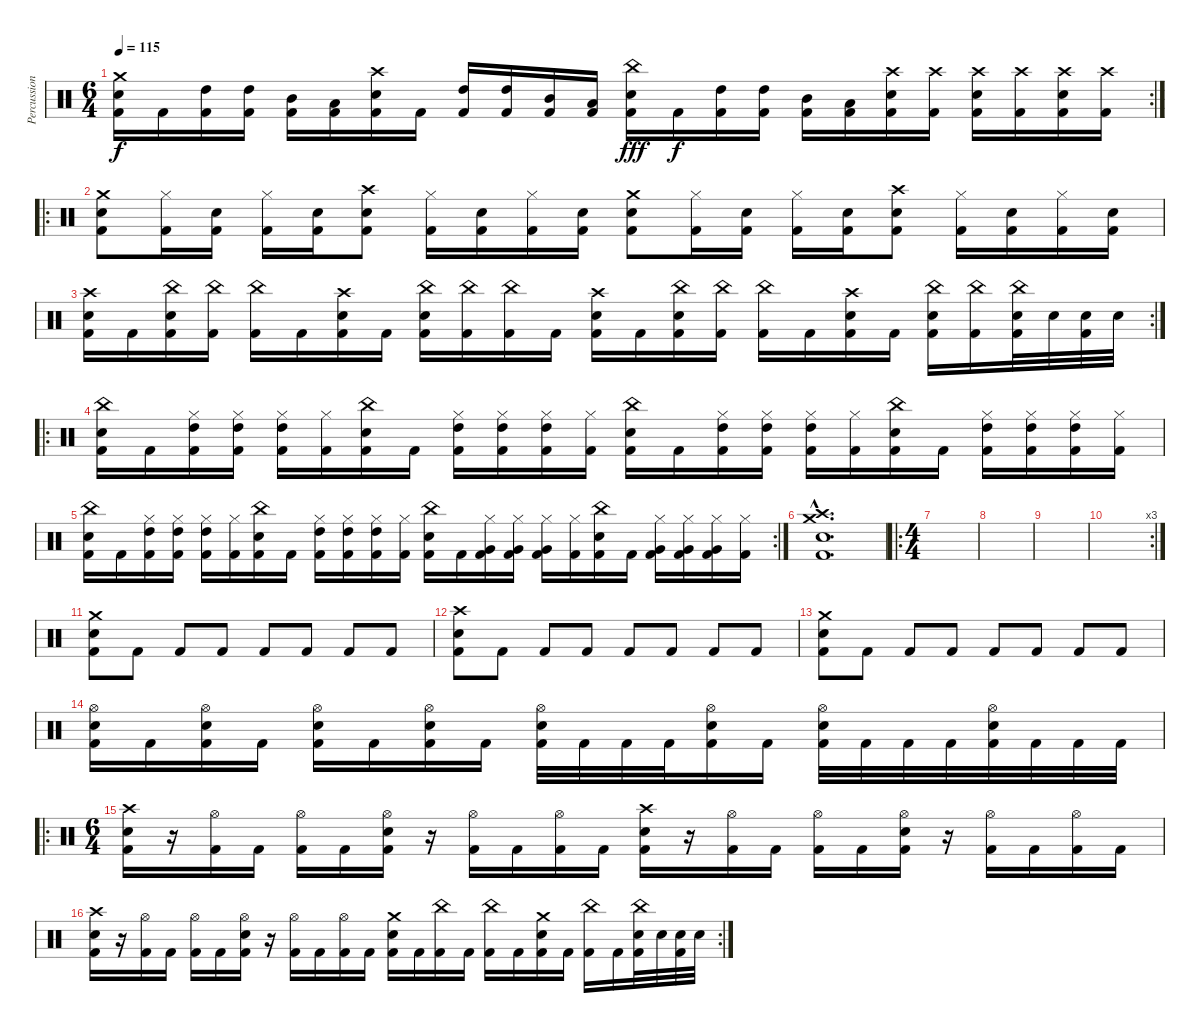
\track ("Percussion" "Percussion") {instrument percussion}
\staff {score}
\articulation defaults
\rc 2
\ts (6 4)
\tempo 115
\clef neutral
\ks c
("Crash medium (hit)" "Electric Snare (hit)" "Kick (hit) 2").16{dy f} "Kick (hit) 2".16 ("High Tom (hit)" "Kick (hit) 2").16 ("High Tom (hit)" "Kick (hit) 2").16 ("Mid Tom (hit)" "Kick (hit) 2").16 ("Low Tom (hit)" "Kick (hit) 2").16 ("Crash high (hit)" "Electric Snare (hit)" "Kick (hit) 2").16 "Kick (hit) 2".16 ("High Tom (hit)" "Kick (hit) 2").16 ("High Tom (hit)" "Kick (hit) 2").16 ("Mid Tom (hit)" "Kick (hit) 2").16 ("Low Tom (hit)" "Kick (hit) 2").16 ("China (hit)" "Electric Snare (hit)" "Kick (hit) 2").16{dy fff} "Kick (hit) 2".16{dy f} ("High Tom (hit)" "Kick (hit) 2").16 ("High Tom (hit)" "Kick (hit) 2").16 ("Mid Tom (hit)" "Kick (hit) 2").16 ("Low Tom (hit)" "Kick (hit) 2").16 ("Crash high (hit)" "Electric Snare (hit)" "Kick (hit) 2").16 ("Crash high (hit)" "Kick (hit) 2").16 ("Crash high (hit)" "Electric Snare (hit)" "Kick (hit) 2").16 ("Crash high (hit)" "Kick (hit) 2").16 ("Crash high (hit)" "Electric Snare (hit)" "Kick (hit) 2").16 ("Crash high (hit)" "Kick (hit) 2").16 |
\ro
("Crash medium (hit)" "Electric Snare (hit)" "Kick (hit) 2").8 ("Hi-Hat (closed)" "Kick (hit) 2").16 ("Electric Snare (hit)" "Kick (hit) 2").16 ("Hi-Hat (closed)" "Kick (hit) 2").16 ("Electric Snare (hit)" "Kick (hit) 2").16 ("Crash high (hit)" "Electric Snare (hit)" "Kick (hit) 2").8 ("Hi-Hat (closed)" "Kick (hit) 2").16 ("Electric Snare (hit)" "Kick (hit) 2").16 ("Hi-Hat (closed)" "Kick (hit) 2").16 ("Electric Snare (hit)" "Kick (hit) 2").16 ("Crash medium (hit)" "Electric Snare (hit)" "Kick (hit) 2").8 ("Hi-Hat (closed)" "Kick (hit) 2").16 ("Electric Snare (hit)" "Kick (hit) 2").16 ("Hi-Hat (closed)" "Kick (hit) 2").16 ("Electric Snare (hit)" "Kick (hit) 2").16 ("Crash high (hit)" "Electric Snare (hit)" "Kick (hit) 2").8 ("Hi-Hat (closed)" "Kick (hit) 2").16 ("Electric Snare (hit)" "Kick (hit) 2").16 ("Hi-Hat (closed)" "Kick (hit) 2").16 ("Electric Snare (hit)" "Kick (hit) 2").16 |
\rc 2
("Crash high (hit)" "Electric Snare (hit)" "Kick (hit) 2").16 "Kick (hit) 2".16 ("China (hit)" "Electric Snare (hit)" "Kick (hit) 2").16 ("China (hit)" "Kick (hit) 2").16 ("China (hit)" "Kick (hit) 2").16 "Kick (hit) 2".16 ("Crash high (hit)" "Electric Snare (hit)" "Kick (hit) 2").16 "Kick (hit) 2".16 ("China (hit)" "Electric Snare (hit)" "Kick (hit) 2").16 ("China (hit)" "Kick (hit) 2").16 ("China (hit)" "Kick (hit) 2").16 "Kick (hit) 2".16 ("Crash high (hit)" "Electric Snare (hit)" "Kick (hit) 2").16 "Kick (hit) 2".16 ("China (hit)" "Electric Snare (hit)" "Kick (hit) 2").16 ("China (hit)" "Kick (hit) 2").16 ("China (hit)" "Kick (hit) 2").16 "Kick (hit) 2".16 ("Crash high (hit)" "Electric Snare (hit)" "Kick (hit) 2").16 "Kick (hit) 2".16 ("China (hit)" "Electric Snare (hit)" "Kick (hit) 2").16 ("China (hit)" "Kick (hit) 2").16 ("China (hit)" "Electric Snare (hit)" "Kick (hit) 2").32 "Electric Snare (hit)".32 ("Electric Snare (hit)" "Kick (hit) 2").32 "Electric Snare (hit)".32 |
\ro
("China (hit)" "Electric Snare (hit)" "Kick (hit) 2").16 "Kick (hit) 2".16 ("Hi-Hat (closed)" "High Tom (hit)" "Kick (hit) 2").16 ("Hi-Hat (closed)" "High Tom (hit)" "Kick (hit) 2").16 ("Hi-Hat (closed)" "High Tom (hit)" "Kick (hit) 2").16 ("Hi-Hat (closed)" "Kick (hit) 2").16 ("China (hit)" "Electric Snare (hit)" "Kick (hit) 2").16 "Kick (hit) 2".16 ("Hi-Hat (closed)" "High Tom (hit)" "Kick (hit) 2").16 ("Hi-Hat (closed)" "High Tom (hit)" "Kick (hit) 2").16 ("Hi-Hat (closed)" "High Tom (hit)" "Kick (hit) 2").16 ("Hi-Hat (closed)" "Kick (hit) 2").16 ("China (hit)" "Electric Snare (hit)" "Kick (hit) 2").16 "Kick (hit) 2".16 ("Hi-Hat (closed)" "High Tom (hit)" "Kick (hit) 2").16 ("Hi-Hat (closed)" "High Tom (hit)" "Kick (hit) 2").16 ("Hi-Hat (closed)" "High Tom (hit)" "Kick (hit) 2").16 ("Hi-Hat (closed)" "Kick (hit) 2").16 ("China (hit)" "Electric Snare (hit)" "Kick (hit) 2").16 "Kick (hit) 2".16 ("Hi-Hat (closed)" "High Tom (hit)" "Kick (hit) 2").16 ("Hi-Hat (closed)" "High Tom (hit)" "Kick (hit) 2").16 ("Hi-Hat (closed)" "High Tom (hit)" "Kick (hit) 2").16 ("Hi-Hat (closed)" "Kick (hit) 2").16 |
\rc 2
("China (hit)" "Electric Snare (hit)" "Kick (hit) 2").16 "Kick (hit) 2".16 ("Hi-Hat (closed)" "High Tom (hit)" "Kick (hit) 2").16 ("Hi-Hat (closed)" "High Tom (hit)" "Kick (hit) 2").16 ("Hi-Hat (closed)" "High Tom (hit)" "Kick (hit) 2").16 ("Hi-Hat (closed)" "Kick (hit) 2").16 ("China (hit)" "Electric Snare (hit)" "Kick (hit) 2").16 "Kick (hit) 2".16 ("Hi-Hat (closed)" "High Tom (hit)" "Kick (hit) 2").16 ("Hi-Hat (closed)" "High Tom (hit)" "Kick (hit) 2").16 ("Hi-Hat (closed)" "High Tom (hit)" "Kick (hit) 2").16 ("Hi-Hat (closed)" "Kick (hit) 2").16 ("China (hit)" "Electric Snare (hit)" "Kick (hit) 2").16 "Kick (hit) 2".16 ("Hi-Hat (closed)" "Very Low Tom (hit)" "Kick (hit) 2").16 ("Hi-Hat (closed)" "Very Low Tom (hit)" "Kick (hit) 2").16 ("Hi-Hat (closed)" "Very Low Tom (hit)" "Kick (hit) 2").16 ("Hi-Hat (closed)" "Kick (hit) 2").16 ("China (hit)" "Electric Snare (hit)" "Kick (hit) 2").16 "Kick (hit) 2".16 ("Hi-Hat (closed)" "Very Low Tom (hit)" "Kick (hit) 2").16 ("Hi-Hat (closed)" "Very Low Tom (hit)" "Kick (hit) 2").16 ("Hi-Hat (closed)" "Very Low Tom (hit)" "Kick (hit) 2").16 ("Hi-Hat (closed)" "Kick (hit) 2").16 |
("Crash high (hit)"{hac} "Crash medium (hit)"{hac} "Electric Snare (hit)"{hac} "Kick (hit) 2"{hac}).1{d} |
\ro
\ts (4 4)
|
|
|
\rc 3
|
("Crash medium (hit)" "Electric Snare (hit)" "Kick (hit) 2").8 "Kick (hit) 2".8 "Kick (hit) 2".8 "Kick (hit) 2".8 "Kick (hit) 2".8 "Kick (hit) 2".8 "Kick (hit) 2".8 "Kick (hit) 2".8 |
("Crash high (hit)" "Electric Snare (hit)" "Kick (hit) 2").8 "Kick (hit) 2".8 "Kick (hit) 2".8 "Kick (hit) 2".8 "Kick (hit) 2".8 "Kick (hit) 2".8 "Kick (hit) 2".8 "Kick (hit) 2".8 |
("Crash medium (hit)" "Electric Snare (hit)" "Kick (hit) 2").8 "Kick (hit) 2".8 "Kick (hit) 2".8 "Kick (hit) 2".8 "Kick (hit) 2".8 "Kick (hit) 2".8 "Kick (hit) 2".8 "Kick (hit) 2".8 |
("Hi-Hat (open)" "Electric Snare (hit)" "Kick (hit) 2").16 "Kick (hit) 2".16 ("Hi-Hat (open)" "Electric Snare (hit)" "Kick (hit) 2").16 "Kick (hit) 2".16 ("Hi-Hat (open)" "Electric Snare (hit)" "Kick (hit) 2").16 "Kick (hit) 2".16 ("Hi-Hat (open)" "Electric Snare (hit)" "Kick (hit) 2").16 "Kick (hit) 2".16 ("Hi-Hat (open)" "Electric Snare (hit)" "Kick (hit) 2").32 "Kick (hit) 2".32 "Kick (hit) 2".32 "Kick (hit) 2".32 ("Hi-Hat (open)" "Electric Snare (hit)" "Kick (hit) 2").16 "Kick (hit) 2".16 ("Hi-Hat (open)" "Electric Snare (hit)" "Kick (hit) 2").32 "Kick (hit) 2".32 "Kick (hit) 2".32 "Kick (hit) 2".32 ("Hi-Hat (open)" "Electric Snare (hit)" "Kick (hit) 2").32 "Kick (hit) 2".32 "Kick (hit) 2".32 "Kick (hit) 2".32 |
\ro
\ts (6 4)
("Crash high (hit)" "Electric Snare (hit)" "Kick (hit) 2").16 r.16 ("Hi-Hat (open)" "Kick (hit) 2").16 "Kick (hit) 2".16 ("Hi-Hat (open)" "Kick (hit) 2").16 "Kick (hit) 2".16 ("Hi-Hat (open)" "Electric Snare (hit)" "Kick (hit) 2").16 r.16 ("Hi-Hat (open)" "Kick (hit) 2").16 "Kick (hit) 2".16 ("Hi-Hat (open)" "Kick (hit) 2").16 "Kick (hit) 2".16 ("Crash high (hit)" "Electric Snare (hit)" "Kick (hit) 2").16 r.16 ("Hi-Hat (open)" "Kick (hit) 2").16 "Kick (hit) 2".16 ("Hi-Hat (open)" "Kick (hit) 2").16 "Kick (hit) 2".16 ("Hi-Hat (open)" "Electric Snare (hit)" "Kick (hit) 2").16 r.16 ("Hi-Hat (open)" "Kick (hit) 2").16 "Kick (hit) 2".16 ("Hi-Hat (open)" "Kick (hit) 2").16 "Kick (hit) 2".16 |
\rc 2
("Crash high (hit)" "Electric Snare (hit)" "Kick (hit) 2").16 r.16 ("Hi-Hat (open)" "Kick (hit) 2").16 "Kick (hit) 2".16 ("Hi-Hat (open)" "Kick (hit) 2").16 "Kick (hit) 2".16 ("Hi-Hat (open)" "Electric Snare (hit)" "Kick (hit) 2").16 r.16 ("Hi-Hat (open)" "Kick (hit) 2").16 "Kick (hit) 2".16 ("Hi-Hat (open)" "Kick (hit) 2").16 "Kick (hit) 2".16 ("Crash medium (hit)" "Electric Snare (hit)" "Kick (hit) 2").16 "Kick (hit) 2".16 ("China (hit)" "Kick (hit) 2").16 "Kick (hit) 2".16 ("China (hit)" "Kick (hit) 2").16 "Kick (hit) 2".16 ("Crash medium (hit)" "Electric Snare (hit)" "Kick (hit) 2").16 "Kick (hit) 2".16 ("China (hit)" "Kick (hit) 2").16 "Kick (hit) 2".16 ("China (hit)" "Electric Snare (hit)" "Kick (hit) 2").32 "Electric Snare (hit)".32 ("Electric Snare (hit)" "Kick (hit) 2").32 "Electric Snare (hit)".32
